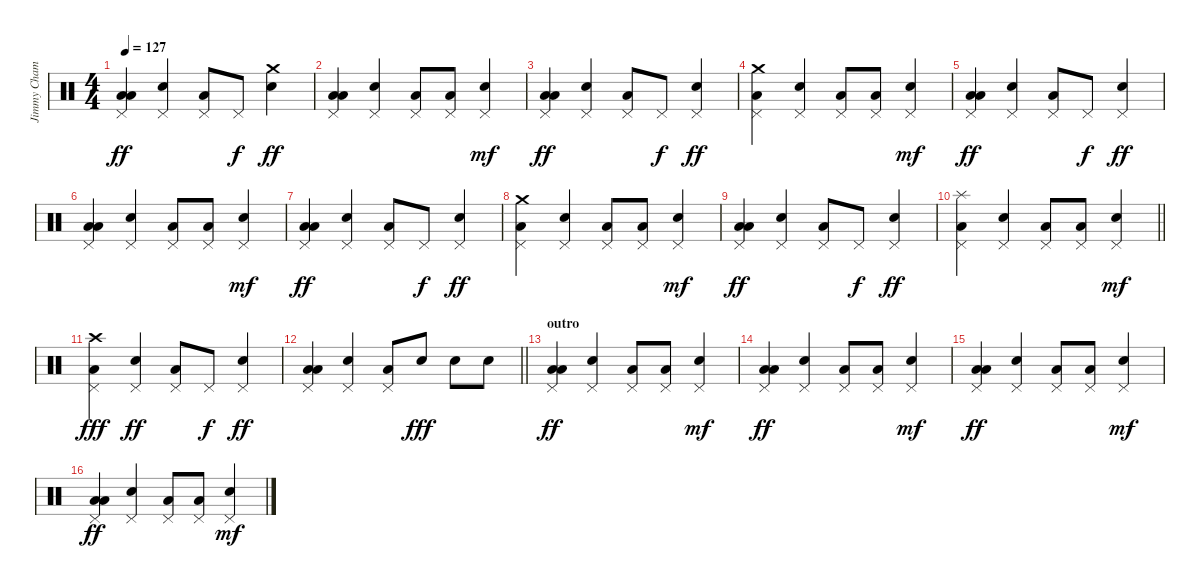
\track ("Jimmy Chamberlin" "Jimmy Cham") {instrument percussion}
\staff {score}
\articulation defaults
\ts (4 4)
\tempo 127
\clef neutral
\ks c
("Low Floor Tom (hit)" "Low Tom (hit)" "Pedal Hi-Hat (hit)").4{dy ff} ("Snare (hit) 2" "Pedal Hi-Hat (hit)").4 ("Low Floor Tom (hit)" "Pedal Hi-Hat (hit)").8 "Pedal Hi-Hat (hit)".8{dy f} ("Snare (hit) 2" "Crash medium (hit)").4{dy ff} |
("Low Floor Tom (hit)" "Low Tom (hit)" "Pedal Hi-Hat (hit)").4 ("Snare (hit) 2" "Pedal Hi-Hat (hit)").4 ("Low Floor Tom (hit)" "Pedal Hi-Hat (hit)").8 ("Low Floor Tom (hit)" "Pedal Hi-Hat (hit)").8 ("Snare (hit) 2" "Pedal Hi-Hat (hit)").4{dy mf} |
("Low Floor Tom (hit)" "Low Tom (hit)" "Pedal Hi-Hat (hit)").4{dy ff} ("Snare (hit) 2" "Pedal Hi-Hat (hit)").4 ("Low Floor Tom (hit)" "Pedal Hi-Hat (hit)").8 "Pedal Hi-Hat (hit)".8{dy f} ("Snare (hit) 2" "Pedal Hi-Hat (hit)").4{dy ff} |
("Crash medium (hit)" "Low Tom (hit)" "Pedal Hi-Hat (hit)").4 ("Snare (hit) 2" "Pedal Hi-Hat (hit)").4 ("Low Floor Tom (hit)" "Pedal Hi-Hat (hit)").8 ("Low Floor Tom (hit)" "Pedal Hi-Hat (hit)").8 ("Snare (hit) 2" "Pedal Hi-Hat (hit)").4{dy mf} |
("Low Floor Tom (hit)" "Low Tom (hit)" "Pedal Hi-Hat (hit)").4{dy ff} ("Snare (hit) 2" "Pedal Hi-Hat (hit)").4 ("Low Floor Tom (hit)" "Pedal Hi-Hat (hit)").8 "Pedal Hi-Hat (hit)".8{dy f} ("Snare (hit) 2" "Pedal Hi-Hat (hit)").4{dy ff} |
("Low Floor Tom (hit)" "Low Tom (hit)" "Pedal Hi-Hat (hit)").4 ("Snare (hit) 2" "Pedal Hi-Hat (hit)").4 ("Low Floor Tom (hit)" "Pedal Hi-Hat (hit)").8 ("Low Floor Tom (hit)" "Pedal Hi-Hat (hit)").8 ("Snare (hit) 2" "Pedal Hi-Hat (hit)").4{dy mf} |
("Low Floor Tom (hit)" "Low Tom (hit)" "Pedal Hi-Hat (hit)").4{dy ff} ("Snare (hit) 2" "Pedal Hi-Hat (hit)").4 ("Low Floor Tom (hit)" "Pedal Hi-Hat (hit)").8 "Pedal Hi-Hat (hit)".8{dy f} ("Snare (hit) 2" "Pedal Hi-Hat (hit)").4{dy ff} |
("Crash medium (hit)" "Low Tom (hit)" "Pedal Hi-Hat (hit)").4 ("Snare (hit) 2" "Pedal Hi-Hat (hit)").4 ("Low Floor Tom (hit)" "Pedal Hi-Hat (hit)").8 ("Low Floor Tom (hit)" "Pedal Hi-Hat (hit)").8 ("Snare (hit) 2" "Pedal Hi-Hat (hit)").4{dy mf} |
("Low Floor Tom (hit)" "Low Tom (hit)" "Pedal Hi-Hat (hit)").4{dy ff} ("Snare (hit) 2" "Pedal Hi-Hat (hit)").4 ("Low Floor Tom (hit)" "Pedal Hi-Hat (hit)").8 "Pedal Hi-Hat (hit)".8{dy f} ("Snare (hit) 2" "Pedal Hi-Hat (hit)").4{dy ff} |
\barLineRight lightlight
("Splash (hit)" "Low Tom (hit)" "Pedal Hi-Hat (hit)").4 ("Snare (hit) 2" "Pedal Hi-Hat (hit)").4 ("Low Floor Tom (hit)" "Pedal Hi-Hat (hit)").8 ("Low Floor Tom (hit)" "Pedal Hi-Hat (hit)").8 ("Snare (hit) 2" "Pedal Hi-Hat (hit)").4{dy mf} |
("Low Floor Tom (hit)" "Crash high (hit)" "Pedal Hi-Hat (hit)").4{dy fff} ("Snare (hit) 2" "Pedal Hi-Hat (hit)").4{dy ff} ("Low Floor Tom (hit)" "Pedal Hi-Hat (hit)").8 "Pedal Hi-Hat (hit)".8{dy f} ("Snare (hit) 2" "Pedal Hi-Hat (hit)").4{dy ff} |
\barLineRight lightlight
("Low Floor Tom (hit)" "Low Tom (hit)" "Pedal Hi-Hat (hit)").4 ("Snare (hit) 2" "Pedal Hi-Hat (hit)").4 ("Low Floor Tom (hit)" "Pedal Hi-Hat (hit)").8 "Snare (hit) 2".8{dy fff} "Snare (hit) 2".8 "Snare (hit) 2".8 |
\section ("" "outro")
("Low Floor Tom (hit)" "Low Tom (hit)" "Pedal Hi-Hat (hit)").4{dy ff} ("Snare (hit) 2" "Pedal Hi-Hat (hit)").4 ("Low Floor Tom (hit)" "Pedal Hi-Hat (hit)").8 ("Low Floor Tom (hit)" "Pedal Hi-Hat (hit)").8 ("Snare (hit) 2" "Pedal Hi-Hat (hit)").4{dy mf} |
("Low Floor Tom (hit)" "Low Tom (hit)" "Pedal Hi-Hat (hit)").4{dy ff} ("Snare (hit) 2" "Pedal Hi-Hat (hit)").4 ("Low Floor Tom (hit)" "Pedal Hi-Hat (hit)").8 ("Low Floor Tom (hit)" "Pedal Hi-Hat (hit)").8 ("Snare (hit) 2" "Pedal Hi-Hat (hit)").4{dy mf} |
("Low Floor Tom (hit)" "Low Tom (hit)" "Pedal Hi-Hat (hit)").4{dy ff} ("Snare (hit) 2" "Pedal Hi-Hat (hit)").4 ("Low Floor Tom (hit)" "Pedal Hi-Hat (hit)").8 ("Low Floor Tom (hit)" "Pedal Hi-Hat (hit)").8 ("Snare (hit) 2" "Pedal Hi-Hat (hit)").4{dy mf} |
("Low Floor Tom (hit)" "Low Tom (hit)" "Pedal Hi-Hat (hit)").4{dy ff} ("Snare (hit) 2" "Pedal Hi-Hat (hit)").4 ("Low Floor Tom (hit)" "Pedal Hi-Hat (hit)").8 ("Low Floor Tom (hit)" "Pedal Hi-Hat (hit)").8 ("Snare (hit) 2" "Pedal Hi-Hat (hit)").4{dy mf}
